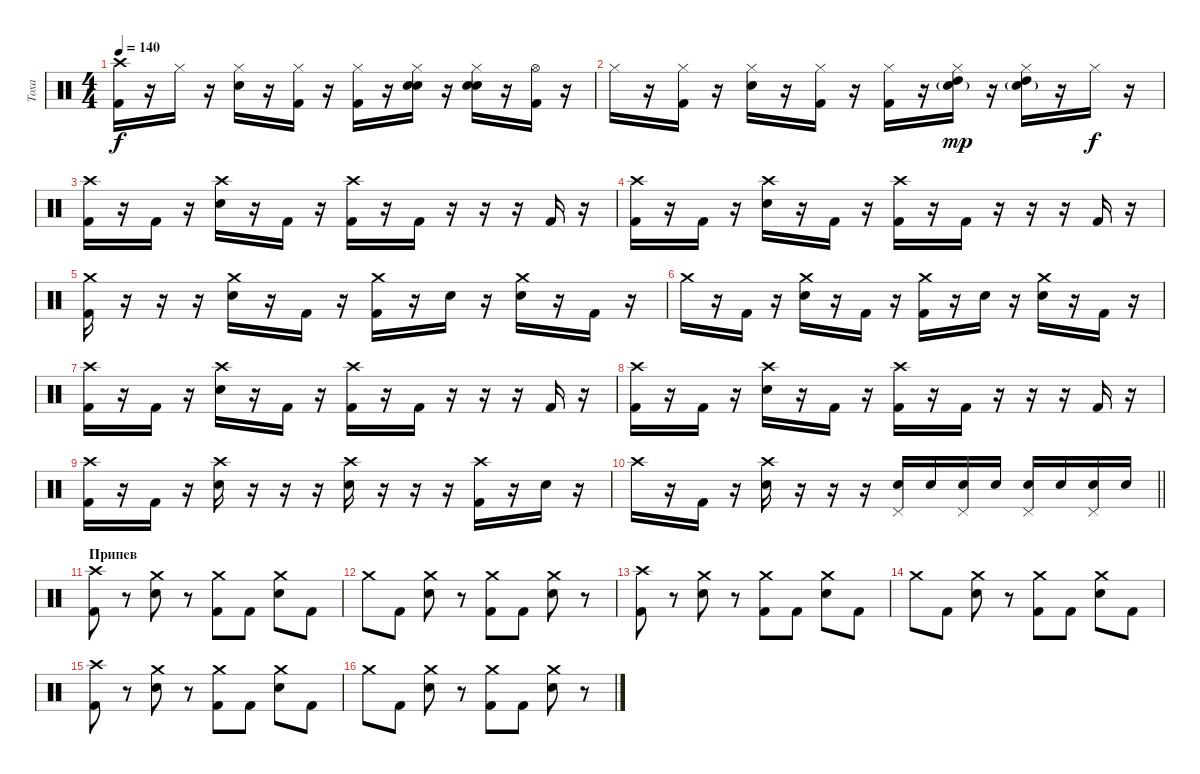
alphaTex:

\track ("Тоха" "Тоха") {instrument percussion}
\staff {score}
\articulation defaults
\ts (4 4)
\tempo 140
\clef neutral
\ks c
("Kick (hit) 2" "Crash high (hit)").16{dy f} r.16 "Hi-Hat (closed)".16 r.16 ("Snare (hit) 2" "Hi-Hat (closed)").16 r.16 ("Kick (hit) 2" "Hi-Hat (closed)").16 r.16 ("Kick (hit) 2" "Hi-Hat (closed)").16 r.16 ("Snare (hit) 2" "Hi-Hat (closed)" "Hand Clap (hit)").16 r.16 ("Snare (hit) 2" "Hi-Hat (closed)" "Hand Clap (hit)").16 r.16 ("Kick (hit) 2" "Hi-Hat (open)").16 r.16 |
"Hi-Hat (closed)".16 r.16 ("Kick (hit) 2" "Hi-Hat (closed)").16 r.16 ("Snare (hit) 2" "Hi-Hat (closed)").16 r.16 ("Kick (hit) 2" "Hi-Hat (closed)").16 r.16 ("Kick (hit) 2" "Hi-Hat (closed)").16 r.16 ("High Tom (hit)" "Hi-Hat (closed)" "Snare (hit) 2"{g}).16{dy mp} r.16 ("High Tom (hit)" "Hi-Hat (closed)" "Snare (hit) 2"{g}).16 r.16 "Hi-Hat (closed)".16{dy f} r.16 |
("Kick (hit) 2" "Crash high (hit)").16 r.16 "Kick (hit) 2".16 r.16 ("Snare (hit) 2" "Crash high (hit)").16 r.16 "Kick (hit) 2".16 r.16 ("Kick (hit) 2" "Crash high (hit)").16 r.16 "Kick (hit) 2".16 r.16 r.16 r.16 "Kick (hit) 2".16 r.16 |
("Kick (hit) 2" "Crash high (hit)").16 r.16 "Kick (hit) 2".16 r.16 ("Snare (hit) 2" "Crash high (hit)").16 r.16 "Kick (hit) 2".16 r.16 ("Kick (hit) 2" "Crash high (hit)").16 r.16 "Kick (hit) 2".16 r.16 r.16 r.16 "Kick (hit) 2".16 r.16 |
("Kick (hit) 2" "Crash medium (hit)").16 r.16 r.16 r.16 ("Snare (hit) 2" "Crash medium (hit)").16 r.16 "Kick (hit) 2".16 r.16 ("Kick (hit) 2" "Crash medium (hit)").16 r.16 "Snare (hit) 2".16 r.16 ("Snare (hit) 2" "Crash medium (hit)").16 r.16 "Kick (hit) 2".16 r.16 |
"Crash medium (hit)".16 r.16 "Kick (hit) 2".16 r.16 ("Snare (hit) 2" "Crash medium (hit)").16 r.16 "Kick (hit) 2".16 r.16 ("Kick (hit) 2" "Crash medium (hit)").16 r.16 "Snare (hit) 2".16 r.16 ("Snare (hit) 2" "Crash medium (hit)").16 r.16 "Kick (hit) 2".16 r.16 |
("Kick (hit) 2" "Crash high (hit)").16 r.16 "Kick (hit) 2".16 r.16 ("Snare (hit) 2" "Crash high (hit)").16 r.16 "Kick (hit) 2".16 r.16 ("Kick (hit) 2" "Crash high (hit)").16 r.16 "Kick (hit) 2".16 r.16 r.16 r.16 "Kick (hit) 2".16 r.16 |
("Kick (hit) 2" "Crash high (hit)").16 r.16 "Kick (hit) 2".16 r.16 ("Snare (hit) 2" "Crash high (hit)").16 r.16 "Kick (hit) 2".16 r.16 ("Kick (hit) 2" "Crash high (hit)").16 r.16 "Kick (hit) 2".16 r.16 r.16 r.16 "Kick (hit) 2".16 r.16 |
("Kick (hit) 2" "Crash high (hit)").16 r.16 "Kick (hit) 2".16 r.16 ("Snare (hit) 2" "Crash high (hit)").16 r.16 r.16 r.16 ("Snare (hit) 2" "Crash high (hit)").16 r.16 r.16 r.16 ("Kick (hit) 2" "Crash high (hit)").16 r.16 "Snare (hit) 2".16 r.16 |
\barLineRight lightlight "Crash high (hit)".16
r.16 "Kick (hit) 2".16 r.16 ("Snare (hit) 2" "Crash high (hit)").16 r.16 r.16 r.16 ("Snare (hit) 2" "Pedal Hi-Hat (hit)").16 "Snare (hit) 2".16 ("Snare (hit) 2" "Pedal Hi-Hat (hit)").16 "Snare (hit) 2".16 ("Snare (hit) 2" "Pedal Hi-Hat (hit)").16 "Snare (hit) 2".16 ("Snare (hit) 2" "Pedal Hi-Hat (hit)").16 "Snare (hit) 2".16 |
\section ("" "Припев")
("Kick (hit) 2" "Crash high (hit)").8 r.8 ("Snare (hit) 2" "Crash medium (hit)").8 r.8 ("Kick (hit) 2" "Crash medium (hit)").8 "Kick (hit) 2".8 ("Snare (hit) 2" "Crash medium (hit)").8 "Kick (hit) 2".8 |
"Crash medium (hit)".8 "Kick (hit) 2".8 ("Snare (hit) 2" "Crash medium (hit)").8 r.8 ("Kick (hit) 2" "Crash medium (hit)").8 "Kick (hit) 2".8 ("Snare (hit) 2" "Crash medium (hit)").8 r.8 |
("Kick (hit) 2" "Crash high (hit)").8 r.8 ("Snare (hit) 2" "Crash medium (hit)").8 r.8 ("Kick (hit) 2" "Crash medium (hit)").8 "Kick (hit) 2".8 ("Snare (hit) 2" "Crash medium (hit)").8 "Kick (hit) 2".8 |
"Crash medium (hit)".8 "Kick (hit) 2".8 ("Snare (hit) 2" "Crash medium (hit)").8 r.8 ("Kick (hit) 2" "Crash medium (hit)").8 "Kick (hit) 2".8 ("Snare (hit) 2" "Crash medium (hit)").8 "Kick (hit) 2".8 |
("Kick (hit) 2" "Crash high (hit)").8 r.8 ("Snare (hit) 2" "Crash medium (hit)").8 r.8 ("Kick (hit) 2" "Crash medium (hit)").8 "Kick (hit) 2".8 ("Snare (hit) 2" "Crash medium (hit)").8 "Kick (hit) 2".8 |
"Crash medium (hit)".8 "Kick (hit) 2".8 ("Snare (hit) 2" "Crash medium (hit)").8 r.8 ("Kick (hit) 2" "Crash medium (hit)").8 "Kick (hit) 2".8 ("Snare (hit) 2" "Crash medium (hit)").8 r.8
